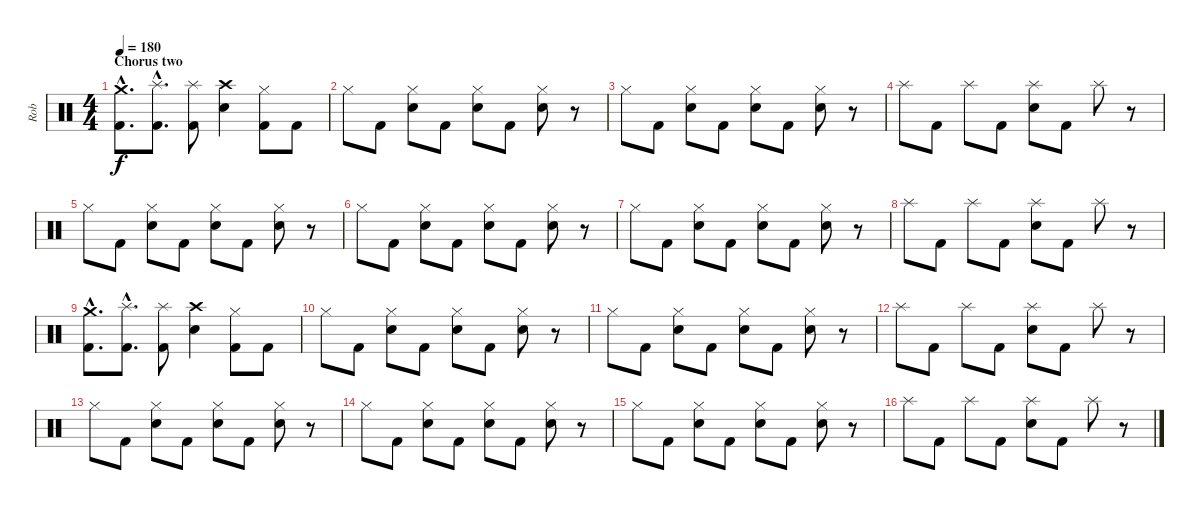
\track ("Rob" "Rob") {instrument percussion}
\staff {score}
\articulation defaults
\ts (4 4)
\section ("" "Chorus two")
\tempo 180
\clef neutral
\ks c
("Crash medium (hit)"{hac} "Kick (hit) 2"{hac}).8{d dy f} ("Splash (hit)"{hac} "Kick (hit) 2"{hac}).8{d} ("Splash (hit)" "Kick (hit) 2").8 ("Crash high (hit)" "Electric Snare (hit)").4 ("Hi-Hat (closed)" "Kick (hit) 2").8 "Kick (hit) 2".8 |
"Hi-Hat (closed)".8 "Kick (hit) 2".8 ("Hi-Hat (closed)" "Electric Snare (hit)").8 "Kick (hit) 2".8 ("Hi-Hat (closed)" "Electric Snare (hit)").8 "Kick (hit) 2".8 ("Hi-Hat (closed)" "Electric Snare (hit)").8 r.8 |
"Hi-Hat (closed)".8 "Kick (hit) 2".8 ("Hi-Hat (closed)" "Electric Snare (hit)").8 "Kick (hit) 2".8 ("Hi-Hat (closed)" "Electric Snare (hit)").8 "Kick (hit) 2".8 ("Hi-Hat (closed)" "Electric Snare (hit)").8 r.8 |
"Splash (hit)".8 "Kick (hit) 2".8 "Splash (hit)".8 "Kick (hit) 2".8 ("Splash (hit)" "Electric Snare (hit)").8 "Kick (hit) 2".8 "Splash (hit)".8 r.8 |
"Hi-Hat (closed)".8 "Kick (hit) 2".8 ("Hi-Hat (closed)" "Electric Snare (hit)").8 "Kick (hit) 2".8 ("Hi-Hat (closed)" "Electric Snare (hit)").8 "Kick (hit) 2".8 ("Hi-Hat (closed)" "Electric Snare (hit)").8 r.8 |
"Hi-Hat (closed)".8 "Kick (hit) 2".8 ("Hi-Hat (closed)" "Electric Snare (hit)").8 "Kick (hit) 2".8 ("Hi-Hat (closed)" "Electric Snare (hit)").8 "Kick (hit) 2".8 ("Hi-Hat (closed)" "Electric Snare (hit)").8 r.8 |
"Hi-Hat (closed)".8 "Kick (hit) 2".8 ("Hi-Hat (closed)" "Electric Snare (hit)").8 "Kick (hit) 2".8 ("Hi-Hat (closed)" "Electric Snare (hit)").8 "Kick (hit) 2".8 ("Hi-Hat (closed)" "Electric Snare (hit)").8 r.8 |
"Splash (hit)".8 "Kick (hit) 2".8 "Splash (hit)".8 "Kick (hit) 2".8 ("Splash (hit)" "Electric Snare (hit)").8 "Kick (hit) 2".8 "Splash (hit)".8 r.8 |
("Crash medium (hit)"{hac} "Kick (hit) 2"{hac}).8{d} ("Splash (hit)"{hac} "Kick (hit) 2"{hac}).8{d} ("Splash (hit)" "Kick (hit) 2").8 ("Crash high (hit)" "Electric Snare (hit)").4 ("Hi-Hat (closed)" "Kick (hit) 2").8 "Kick (hit) 2".8 |
"Hi-Hat (closed)".8 "Kick (hit) 2".8 ("Hi-Hat (closed)" "Electric Snare (hit)").8 "Kick (hit) 2".8 ("Hi-Hat (closed)" "Electric Snare (hit)").8 "Kick (hit) 2".8 ("Hi-Hat (closed)" "Electric Snare (hit)").8 r.8 |
"Hi-Hat (closed)".8 "Kick (hit) 2".8 ("Hi-Hat (closed)" "Electric Snare (hit)").8 "Kick (hit) 2".8 ("Hi-Hat (closed)" "Electric Snare (hit)").8 "Kick (hit) 2".8 ("Hi-Hat (closed)" "Electric Snare (hit)").8 r.8 |
"Splash (hit)".8 "Kick (hit) 2".8 "Splash (hit)".8 "Kick (hit) 2".8 ("Splash (hit)" "Electric Snare (hit)").8 "Kick (hit) 2".8 "Splash (hit)".8 r.8 |
"Hi-Hat (closed)".8 "Kick (hit) 2".8 ("Hi-Hat (closed)" "Electric Snare (hit)").8 "Kick (hit) 2".8 ("Hi-Hat (closed)" "Electric Snare (hit)").8 "Kick (hit) 2".8 ("Hi-Hat (closed)" "Electric Snare (hit)").8 r.8 |
"Hi-Hat (closed)".8 "Kick (hit) 2".8 ("Hi-Hat (closed)" "Electric Snare (hit)").8 "Kick (hit) 2".8 ("Hi-Hat (closed)" "Electric Snare (hit)").8 "Kick (hit) 2".8 ("Hi-Hat (closed)" "Electric Snare (hit)").8 r.8 |
"Hi-Hat (closed)".8 "Kick (hit) 2".8 ("Hi-Hat (closed)" "Electric Snare (hit)").8 "Kick (hit) 2".8 ("Hi-Hat (closed)" "Electric Snare (hit)").8 "Kick (hit) 2".8 ("Hi-Hat (closed)" "Electric Snare (hit)").8 r.8 |
"Splash (hit)".8 "Kick (hit) 2".8 "Splash (hit)".8 "Kick (hit) 2".8 ("Splash (hit)" "Electric Snare (hit)").8 "Kick (hit) 2".8 "Splash (hit)".8 r.8
